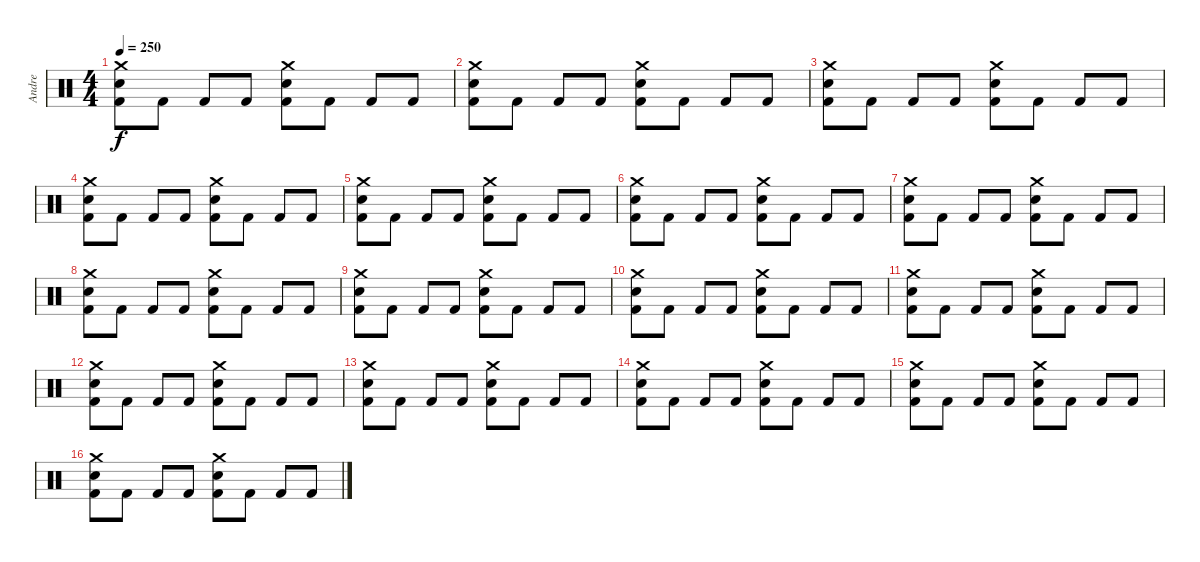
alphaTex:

\track ("Andre" "Andre") {instrument percussion}
\staff {score}
\articulation defaults
\ts (4 4)
\tempo 250
\clef neutral
\ks c
("Crash medium (hit)" "Snare (hit) 2" "Kick (hit) 2").8{dy f} "Kick (hit) 2".8 "Kick (hit) 2".8 "Kick (hit) 2".8 ("Crash medium (hit)" "Snare (hit) 2" "Kick (hit) 2").8 "Kick (hit) 2".8 "Kick (hit) 2".8 "Kick (hit) 2".8 |
("Crash medium (hit)" "Snare (hit) 2" "Kick (hit) 2").8 "Kick (hit) 2".8 "Kick (hit) 2".8 "Kick (hit) 2".8 ("Crash medium (hit)" "Snare (hit) 2" "Kick (hit) 2").8 "Kick (hit) 2".8 "Kick (hit) 2".8 "Kick (hit) 2".8 |
("Crash medium (hit)" "Snare (hit) 2" "Kick (hit) 2").8 "Kick (hit) 2".8 "Kick (hit) 2".8 "Kick (hit) 2".8 ("Crash medium (hit)" "Snare (hit) 2" "Kick (hit) 2").8 "Kick (hit) 2".8 "Kick (hit) 2".8 "Kick (hit) 2".8 |
("Crash medium (hit)" "Snare (hit) 2" "Kick (hit) 2").8 "Kick (hit) 2".8 "Kick (hit) 2".8 "Kick (hit) 2".8 ("Crash medium (hit)" "Snare (hit) 2" "Kick (hit) 2").8 "Kick (hit) 2".8 "Kick (hit) 2".8 "Kick (hit) 2".8 |
("Crash medium (hit)" "Snare (hit) 2" "Kick (hit) 2").8 "Kick (hit) 2".8 "Kick (hit) 2".8 "Kick (hit) 2".8 ("Crash medium (hit)" "Snare (hit) 2" "Kick (hit) 2").8 "Kick (hit) 2".8 "Kick (hit) 2".8 "Kick (hit) 2".8 |
("Crash medium (hit)" "Snare (hit) 2" "Kick (hit) 2").8 "Kick (hit) 2".8 "Kick (hit) 2".8 "Kick (hit) 2".8 ("Crash medium (hit)" "Snare (hit) 2" "Kick (hit) 2").8 "Kick (hit) 2".8 "Kick (hit) 2".8 "Kick (hit) 2".8 |
("Crash medium (hit)" "Snare (hit) 2" "Kick (hit) 2").8 "Kick (hit) 2".8 "Kick (hit) 2".8 "Kick (hit) 2".8 ("Crash medium (hit)" "Snare (hit) 2" "Kick (hit) 2").8 "Kick (hit) 2".8 "Kick (hit) 2".8 "Kick (hit) 2".8 |
("Crash medium (hit)" "Snare (hit) 2" "Kick (hit) 2").8 "Kick (hit) 2".8 "Kick (hit) 2".8 "Kick (hit) 2".8 ("Crash medium (hit)" "Snare (hit) 2" "Kick (hit) 2").8 "Kick (hit) 2".8 "Kick (hit) 2".8 "Kick (hit) 2".8 |
("Crash medium (hit)" "Snare (hit) 2" "Kick (hit) 2").8 "Kick (hit) 2".8 "Kick (hit) 2".8 "Kick (hit) 2".8 ("Crash medium (hit)" "Snare (hit) 2" "Kick (hit) 2").8 "Kick (hit) 2".8 "Kick (hit) 2".8 "Kick (hit) 2".8 |
("Crash medium (hit)" "Snare (hit) 2" "Kick (hit) 2").8 "Kick (hit) 2".8 "Kick (hit) 2".8 "Kick (hit) 2".8 ("Crash medium (hit)" "Snare (hit) 2" "Kick (hit) 2").8 "Kick (hit) 2".8 "Kick (hit) 2".8 "Kick (hit) 2".8 |
("Crash medium (hit)" "Snare (hit) 2" "Kick (hit) 2").8 "Kick (hit) 2".8 "Kick (hit) 2".8 "Kick (hit) 2".8 ("Crash medium (hit)" "Snare (hit) 2" "Kick (hit) 2").8 "Kick (hit) 2".8 "Kick (hit) 2".8 "Kick (hit) 2".8 |
("Crash medium (hit)" "Snare (hit) 2" "Kick (hit) 2").8 "Kick (hit) 2".8 "Kick (hit) 2".8 "Kick (hit) 2".8 ("Crash medium (hit)" "Snare (hit) 2" "Kick (hit) 2").8 "Kick (hit) 2".8 "Kick (hit) 2".8 "Kick (hit) 2".8 |
("Crash medium (hit)" "Snare (hit) 2" "Kick (hit) 2").8 "Kick (hit) 2".8 "Kick (hit) 2".8 "Kick (hit) 2".8 ("Crash medium (hit)" "Snare (hit) 2" "Kick (hit) 2").8 "Kick (hit) 2".8 "Kick (hit) 2".8 "Kick (hit) 2".8 |
("Crash medium (hit)" "Snare (hit) 2" "Kick (hit) 2").8 "Kick (hit) 2".8 "Kick (hit) 2".8 "Kick (hit) 2".8 ("Crash medium (hit)" "Snare (hit) 2" "Kick (hit) 2").8 "Kick (hit) 2".8 "Kick (hit) 2".8 "Kick (hit) 2".8 |
("Crash medium (hit)" "Snare (hit) 2" "Kick (hit) 2").8 "Kick (hit) 2".8 "Kick (hit) 2".8 "Kick (hit) 2".8 ("Crash medium (hit)" "Snare (hit) 2" "Kick (hit) 2").8 "Kick (hit) 2".8 "Kick (hit) 2".8 "Kick (hit) 2".8 |
("Crash medium (hit)" "Snare (hit) 2" "Kick (hit) 2").8 "Kick (hit) 2".8 "Kick (hit) 2".8 "Kick (hit) 2".8 ("Crash medium (hit)" "Snare (hit) 2" "Kick (hit) 2").8 "Kick (hit) 2".8 "Kick (hit) 2".8 "Kick (hit) 2".8
